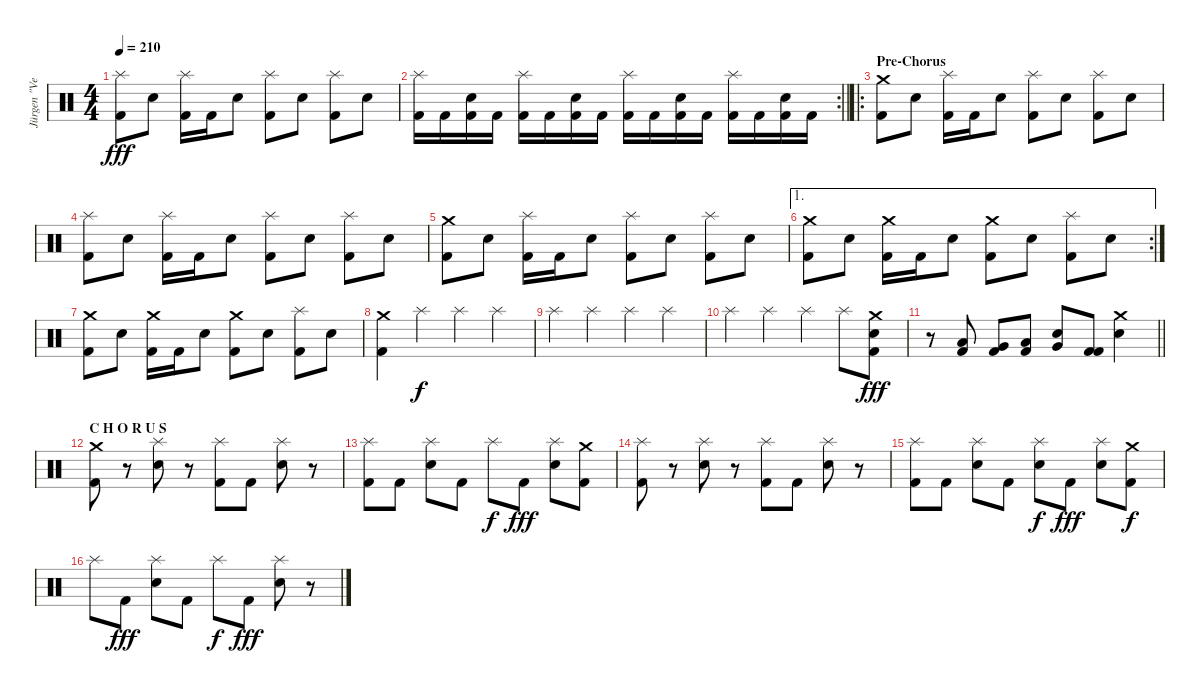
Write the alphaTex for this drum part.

\track ("Jürgen \"Ventor\" Reil" "Jürgen \"Ve") {instrument percussion}
\staff {score}
\articulation defaults
\ts (4 4)
\tempo 210
\clef neutral
\ks c
("Splash (hit)" "Kick (hit) 2").8{dy fff} "Electric Snare (hit)".8 ("Splash (hit)" "Kick (hit) 2").16 "Kick (hit) 2".16 "Electric Snare (hit)".8 ("Splash (hit)" "Kick (hit) 2").8 "Electric Snare (hit)".8 ("Splash (hit)" "Kick (hit) 2").8 "Electric Snare (hit)".8 |
\rc 2
\barLineRight lightlight
("Splash (hit)" "Kick (hit) 2").16 "Kick (hit) 2".16 ("Electric Snare (hit)" "Kick (hit) 2").16 "Kick (hit) 2".16 ("Splash (hit)" "Kick (hit) 2").16 "Kick (hit) 2".16 ("Electric Snare (hit)" "Kick (hit) 2").16 "Kick (hit) 2".16 ("Splash (hit)" "Kick (hit) 2").16 "Kick (hit) 2".16 ("Electric Snare (hit)" "Kick (hit) 2").16 "Kick (hit) 2".16 ("Splash (hit)" "Kick (hit) 2").16 "Kick (hit) 2".16 ("Electric Snare (hit)" "Kick (hit) 2").16 "Kick (hit) 2".16 |
\ro
\section ("" "Pre-Chorus")
("Crash medium (hit)" "Kick (hit) 2").8 "Electric Snare (hit)".8 ("Splash (hit)" "Kick (hit) 2").16 "Kick (hit) 2".16 "Electric Snare (hit)".8 ("Splash (hit)" "Kick (hit) 2").8 "Electric Snare (hit)".8 ("Splash (hit)" "Kick (hit) 2").8 "Electric Snare (hit)".8 |
("Splash (hit)" "Kick (hit) 2").8 "Electric Snare (hit)".8 ("Splash (hit)" "Kick (hit) 2").16 "Kick (hit) 2".16 "Electric Snare (hit)".8 ("Splash (hit)" "Kick (hit) 2").8 "Electric Snare (hit)".8 ("Splash (hit)" "Kick (hit) 2").8 "Electric Snare (hit)".8 |
("Crash medium (hit)" "Kick (hit) 2").8 "Electric Snare (hit)".8 ("Splash (hit)" "Kick (hit) 2").16 "Kick (hit) 2".16 "Electric Snare (hit)".8 ("Splash (hit)" "Kick (hit) 2").8 "Electric Snare (hit)".8 ("Splash (hit)" "Kick (hit) 2").8 "Electric Snare (hit)".8 |
\ae 1
\rc 2
("Crash medium (hit)" "Kick (hit) 2").8 "Electric Snare (hit)".8 ("Crash medium (hit)" "Kick (hit) 2").16 "Kick (hit) 2".16 "Electric Snare (hit)".8 ("Crash medium (hit)" "Kick (hit) 2").8 "Electric Snare (hit)".8 ("Splash (hit)" "Kick (hit) 2").8 "Electric Snare (hit)".8 |
("Crash medium (hit)" "Kick (hit) 2").8 "Electric Snare (hit)".8 ("Crash medium (hit)" "Kick (hit) 2").16 "Kick (hit) 2".16 "Electric Snare (hit)".8 ("Crash medium (hit)" "Kick (hit) 2").8 "Electric Snare (hit)".8 ("Splash (hit)" "Kick (hit) 2").8 "Electric Snare (hit)".8 |
("Crash medium (hit)" "Kick (hit) 2").4 "Splash (hit)".4{dy f} "Splash (hit)".4 "Splash (hit)".4 |
"Splash (hit)".4 "Splash (hit)".4 "Splash (hit)".4 "Splash (hit)".4 |
"Splash (hit)".4 "Splash (hit)".4 "Splash (hit)".4 "Splash (hit)".8 ("Crash medium (hit)" "Electric Snare (hit)" "Kick (hit) 2").8{dy fff} |
\barLineRight lightlight
r.8 ("Low Tom (hit)" "Kick (hit) 2").8 ("Very Low Tom (hit)" "Kick (hit) 2").8 ("Low Tom (hit)" "Kick (hit) 2").8 ("Electric Snare (hit)" "Very Low Tom (hit)").8 ("Kick (hit) 2" "Kick (hit) 2").8 ("Crash medium (hit)" "Electric Snare (hit)").4 |
\section ("" "C H O R U S")
("Crash medium (hit)" "Kick (hit) 2").8 r.8 ("Splash (hit)" "Electric Snare (hit)").8 r.8 ("Splash (hit)" "Kick (hit) 2").8 "Kick (hit) 2".8 ("Splash (hit)" "Electric Snare (hit)").8 r.8 |
("Splash (hit)" "Kick (hit) 2").8 "Kick (hit) 2".8 ("Splash (hit)" "Electric Snare (hit)").8 "Kick (hit) 2".8 "Splash (hit)".8{dy f} "Kick (hit) 2".8{dy fff} ("Splash (hit)" "Electric Snare (hit)").8 ("Crash medium (hit)" "Kick (hit) 2").8 |
("Splash (hit)" "Kick (hit) 2").8 r.8 ("Splash (hit)" "Electric Snare (hit)").8 r.8 ("Splash (hit)" "Kick (hit) 2").8 "Kick (hit) 2".8 ("Splash (hit)" "Electric Snare (hit)").8 r.8 |
("Splash (hit)" "Kick (hit) 2").8 "Kick (hit) 2".8 ("Splash (hit)" "Electric Snare (hit)").8 "Kick (hit) 2".8 ("Splash (hit)" "Electric Snare (hit)").8{dy f} "Kick (hit) 2".8{dy fff} ("Splash (hit)" "Electric Snare (hit)").8 ("Crash medium (hit)" "Kick (hit) 2").8{dy f} |
"Splash (hit)".8 "Kick (hit) 2".8{dy fff} ("Splash (hit)" "Electric Snare (hit)").8 "Kick (hit) 2".8 "Splash (hit)".8{dy f} "Kick (hit) 2".8{dy fff} ("Splash (hit)" "Electric Snare (hit)").8 r.8
